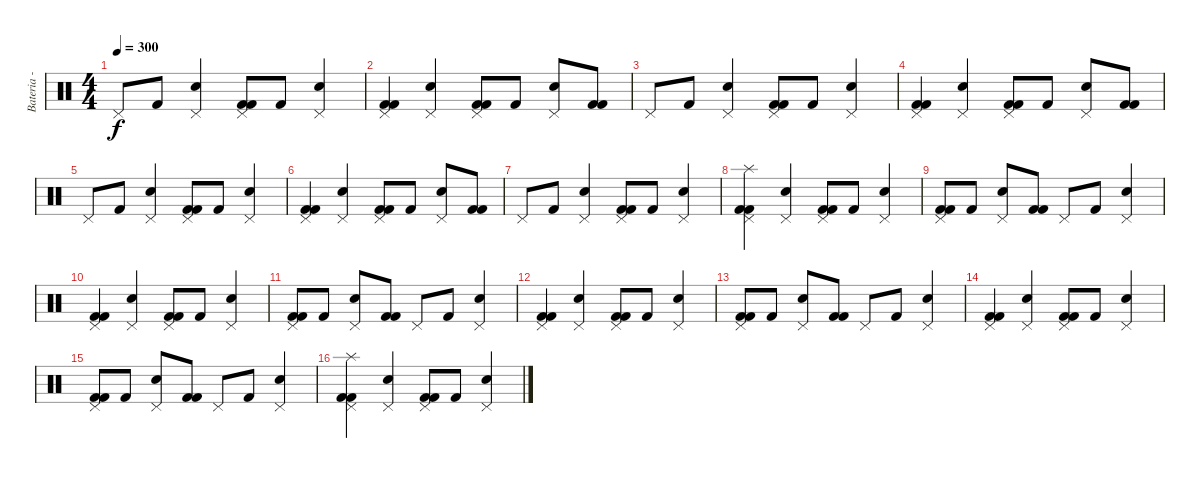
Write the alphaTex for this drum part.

\track ("Bateria - Larzon" "Bateria - ") {instrument percussion}
\staff {score}
\articulation defaults
\ts (4 4)
\tempo 300
\clef neutral
\ks c "Pedal Hi-Hat (hit)".8{dy f} "Kick (hit) 2".8
("Snare (hit) 2" "Pedal Hi-Hat (hit)").4 ("Kick (hit) 2" "Kick (hit) 2" "Pedal Hi-Hat (hit)").8 "Kick (hit) 2".8 ("Snare (hit) 2" "Pedal Hi-Hat (hit)").4 |
("Kick (hit) 2" "Kick (hit) 2" "Pedal Hi-Hat (hit)").4 ("Snare (hit) 2" "Pedal Hi-Hat (hit)").4 ("Kick (hit) 2" "Kick (hit) 2" "Pedal Hi-Hat (hit)").8 "Kick (hit) 2".8 ("Snare (hit) 2" "Pedal Hi-Hat (hit)").8 ("Kick (hit) 2" "Kick (hit) 2").8 |
"Pedal Hi-Hat (hit)".8 "Kick (hit) 2".8 ("Snare (hit) 2" "Pedal Hi-Hat (hit)").4 ("Kick (hit) 2" "Kick (hit) 2" "Pedal Hi-Hat (hit)").8 "Kick (hit) 2".8 ("Snare (hit) 2" "Pedal Hi-Hat (hit)").4 |
("Kick (hit) 2" "Kick (hit) 2" "Pedal Hi-Hat (hit)").4 ("Snare (hit) 2" "Pedal Hi-Hat (hit)").4 ("Kick (hit) 2" "Kick (hit) 2" "Pedal Hi-Hat (hit)").8 "Kick (hit) 2".8 ("Snare (hit) 2" "Pedal Hi-Hat (hit)").8 ("Kick (hit) 2" "Kick (hit) 2").8 |
"Pedal Hi-Hat (hit)".8 "Kick (hit) 2".8 ("Snare (hit) 2" "Pedal Hi-Hat (hit)").4 ("Kick (hit) 2" "Kick (hit) 2" "Pedal Hi-Hat (hit)").8 "Kick (hit) 2".8 ("Snare (hit) 2" "Pedal Hi-Hat (hit)").4 |
("Kick (hit) 2" "Kick (hit) 2" "Pedal Hi-Hat (hit)").4 ("Snare (hit) 2" "Pedal Hi-Hat (hit)").4 ("Kick (hit) 2" "Kick (hit) 2" "Pedal Hi-Hat (hit)").8 "Kick (hit) 2".8 ("Snare (hit) 2" "Pedal Hi-Hat (hit)").8 ("Kick (hit) 2" "Kick (hit) 2").8 |
"Pedal Hi-Hat (hit)".8 "Kick (hit) 2".8 ("Snare (hit) 2" "Pedal Hi-Hat (hit)").4 ("Kick (hit) 2" "Kick (hit) 2" "Pedal Hi-Hat (hit)").8 "Kick (hit) 2".8 ("Snare (hit) 2" "Pedal Hi-Hat (hit)").4 |
("Kick (hit) 2" "Kick (hit) 2" "Pedal Hi-Hat (hit)" "Splash (hit)").4 ("Snare (hit) 2" "Pedal Hi-Hat (hit)").4 ("Kick (hit) 2" "Kick (hit) 2" "Pedal Hi-Hat (hit)").8 "Kick (hit) 2".8 ("Pedal Hi-Hat (hit)" "Snare (hit) 2").4 |
("Pedal Hi-Hat (hit)" "Kick (hit) 2" "Kick (hit) 2").8 "Kick (hit) 2".8 ("Pedal Hi-Hat (hit)" "Snare (hit) 2").8 ("Kick (hit) 2" "Kick (hit) 2").8 "Pedal Hi-Hat (hit)".8 "Kick (hit) 2".8 ("Snare (hit) 2" "Pedal Hi-Hat (hit)").4 |
("Pedal Hi-Hat (hit)" "Kick (hit) 2" "Kick (hit) 2").4 ("Snare (hit) 2" "Pedal Hi-Hat (hit)").4 ("Kick (hit) 2" "Kick (hit) 2" "Pedal Hi-Hat (hit)").8 "Kick (hit) 2".8 ("Pedal Hi-Hat (hit)" "Snare (hit) 2").4 |
("Pedal Hi-Hat (hit)" "Kick (hit) 2" "Kick (hit) 2").8 "Kick (hit) 2".8 ("Pedal Hi-Hat (hit)" "Snare (hit) 2").8 ("Kick (hit) 2" "Kick (hit) 2").8 "Pedal Hi-Hat (hit)".8 "Kick (hit) 2".8 ("Snare (hit) 2" "Pedal Hi-Hat (hit)").4 |
("Pedal Hi-Hat (hit)" "Kick (hit) 2" "Kick (hit) 2").4 ("Snare (hit) 2" "Pedal Hi-Hat (hit)").4 ("Kick (hit) 2" "Kick (hit) 2" "Pedal Hi-Hat (hit)").8 "Kick (hit) 2".8 ("Pedal Hi-Hat (hit)" "Snare (hit) 2").4 |
("Pedal Hi-Hat (hit)" "Kick (hit) 2" "Kick (hit) 2").8 "Kick (hit) 2".8 ("Pedal Hi-Hat (hit)" "Snare (hit) 2").8 ("Kick (hit) 2" "Kick (hit) 2").8 "Pedal Hi-Hat (hit)".8 "Kick (hit) 2".8 ("Snare (hit) 2" "Pedal Hi-Hat (hit)").4 |
("Pedal Hi-Hat (hit)" "Kick (hit) 2" "Kick (hit) 2").4 ("Snare (hit) 2" "Pedal Hi-Hat (hit)").4 ("Kick (hit) 2" "Kick (hit) 2" "Pedal Hi-Hat (hit)").8 "Kick (hit) 2".8 ("Pedal Hi-Hat (hit)" "Snare (hit) 2").4 |
("Pedal Hi-Hat (hit)" "Kick (hit) 2" "Kick (hit) 2").8 "Kick (hit) 2".8 ("Pedal Hi-Hat (hit)" "Snare (hit) 2").8 ("Kick (hit) 2" "Kick (hit) 2").8 "Pedal Hi-Hat (hit)".8 "Kick (hit) 2".8 ("Snare (hit) 2" "Pedal Hi-Hat (hit)").4 |
("Kick (hit) 2" "Kick (hit) 2" "Pedal Hi-Hat (hit)" "Splash (hit)").4 ("Snare (hit) 2" "Pedal Hi-Hat (hit)").4 ("Kick (hit) 2" "Kick (hit) 2" "Pedal Hi-Hat (hit)").8 "Kick (hit) 2".8 ("Pedal Hi-Hat (hit)" "Snare (hit) 2").4
